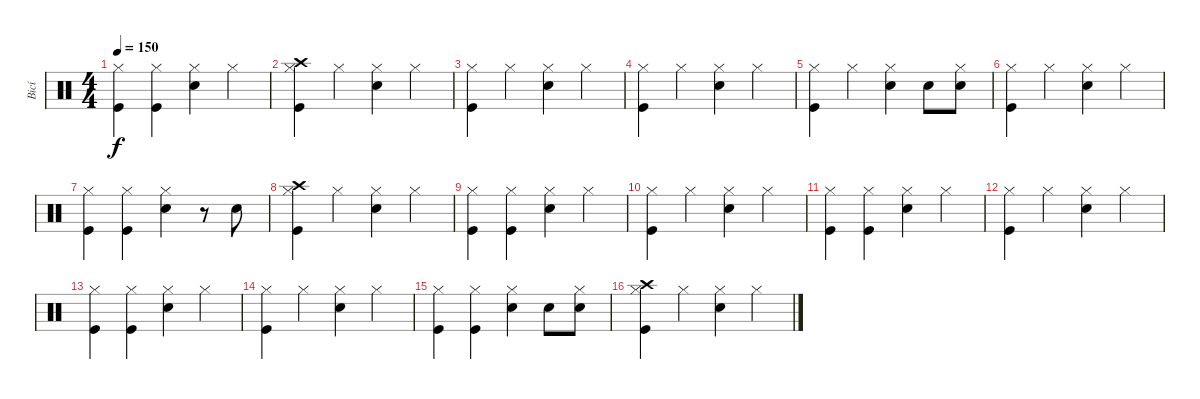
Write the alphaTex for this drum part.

\track ("Bicí" "Bicí") {instrument percussion}
\staff {score}
\articulation defaults
\ts (4 4)
\tempo 150
\clef neutral
\ks c
("Kick (hit)" "Hi-Hat (closed)").4{dy f} ("Kick (hit)" "Hi-Hat (closed)").4 ("Snare (hit) 2" "Hi-Hat (closed)").4 "Hi-Hat (closed)".4 |
("Kick (hit)" "Crash high (hit)" "Hi-Hat (closed)").4 "Hi-Hat (closed)".4 ("Snare (hit) 2" "Hi-Hat (closed)").4 "Hi-Hat (closed)".4 |
("Kick (hit)" "Hi-Hat (closed)").4 "Hi-Hat (closed)".4 ("Snare (hit) 2" "Hi-Hat (closed)").4 "Hi-Hat (closed)".4 |
("Kick (hit)" "Hi-Hat (closed)").4 "Hi-Hat (closed)".4 ("Snare (hit) 2" "Hi-Hat (closed)").4 "Hi-Hat (closed)".4 |
("Kick (hit)" "Hi-Hat (closed)").4 "Hi-Hat (closed)".4 ("Snare (hit) 2" "Hi-Hat (closed)").4 "Snare (hit) 2".8 ("Snare (hit) 2" "Hi-Hat (closed)").8 |
("Kick (hit)" "Hi-Hat (closed)").4 "Hi-Hat (closed)".4 ("Snare (hit) 2" "Hi-Hat (closed)").4 "Hi-Hat (closed)".4 |
("Kick (hit)" "Hi-Hat (closed)").4 ("Kick (hit)" "Hi-Hat (closed)").4 ("Snare (hit) 2" "Hi-Hat (closed)").4 r.8 "Snare (hit) 2".8 |
("Kick (hit)" "Crash high (hit)" "Hi-Hat (closed)").4 "Hi-Hat (closed)".4 ("Snare (hit) 2" "Hi-Hat (closed)").4 "Hi-Hat (closed)".4 |
("Kick (hit)" "Hi-Hat (closed)").4 ("Kick (hit)" "Hi-Hat (closed)").4 ("Snare (hit) 2" "Hi-Hat (closed)").4 "Hi-Hat (closed)".4 |
("Kick (hit)" "Hi-Hat (closed)").4 "Hi-Hat (closed)".4 ("Snare (hit) 2" "Hi-Hat (closed)").4 "Hi-Hat (closed)".4 |
("Kick (hit)" "Hi-Hat (closed)").4 ("Kick (hit)" "Hi-Hat (closed)").4 ("Snare (hit) 2" "Hi-Hat (closed)").4 "Hi-Hat (closed)".4 |
("Kick (hit)" "Hi-Hat (closed)").4 "Hi-Hat (closed)".4 ("Snare (hit) 2" "Hi-Hat (closed)").4 "Hi-Hat (closed)".4 |
("Kick (hit)" "Hi-Hat (closed)").4 ("Kick (hit)" "Hi-Hat (closed)").4 ("Snare (hit) 2" "Hi-Hat (closed)").4 "Hi-Hat (closed)".4 |
("Kick (hit)" "Hi-Hat (closed)").4 "Hi-Hat (closed)".4 ("Snare (hit) 2" "Hi-Hat (closed)").4 "Hi-Hat (closed)".4 |
("Kick (hit)" "Hi-Hat (closed)").4 ("Kick (hit)" "Hi-Hat (closed)").4 ("Snare (hit) 2" "Hi-Hat (closed)").4 "Snare (hit) 2".8 ("Snare (hit) 2" "Hi-Hat (closed)").8 |
("Kick (hit)" "Crash high (hit)" "Hi-Hat (closed)").4 "Hi-Hat (closed)".4 ("Snare (hit) 2" "Hi-Hat (closed)").4 "Hi-Hat (closed)".4
